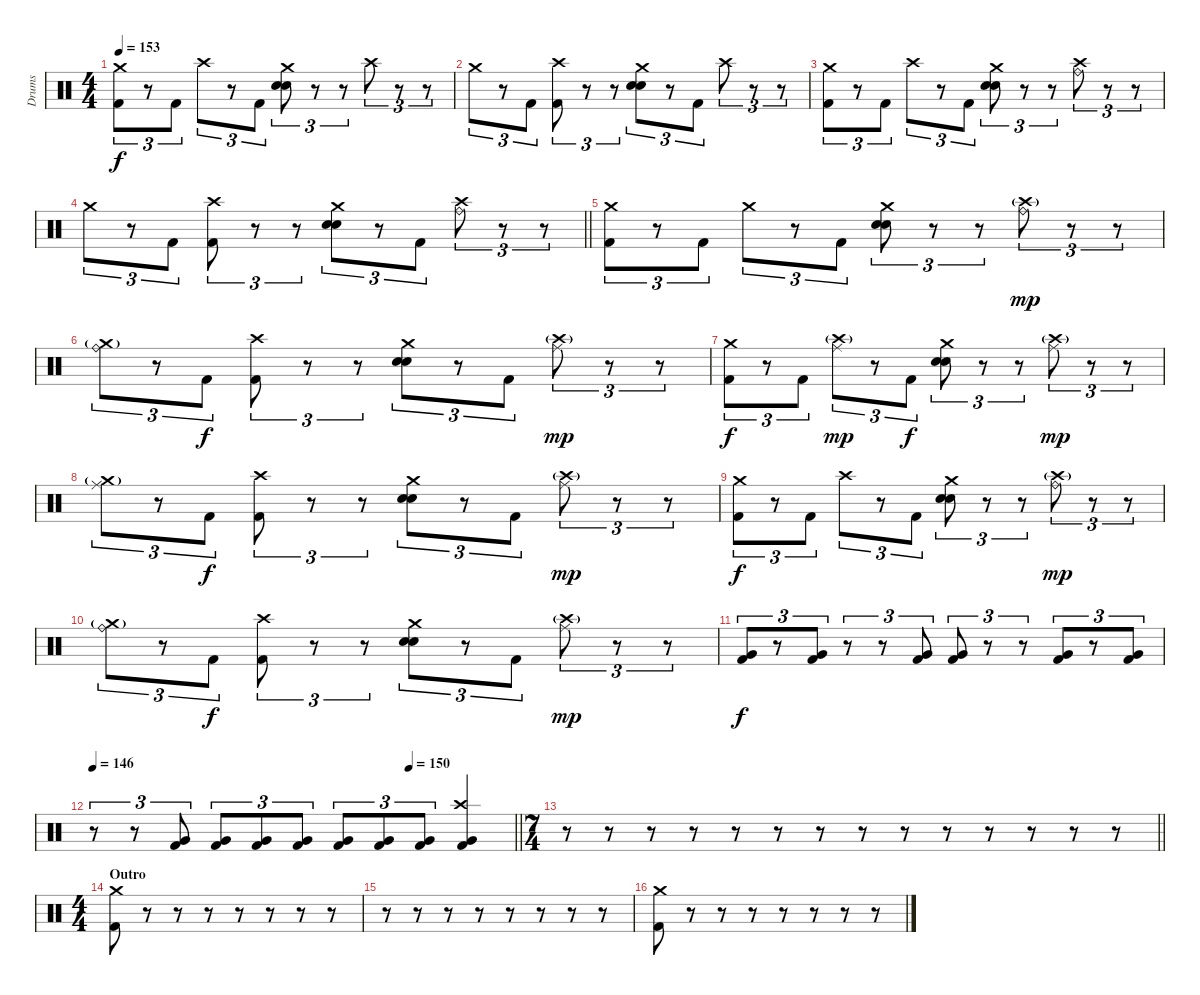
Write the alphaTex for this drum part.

\track ("Drums" "Drums") {instrument percussion}
\staff {score}
\articulation defaults
\ts (4 4)
\tempo 153
\clef neutral
\ks c
("Crash medium (hit)" "Kick (hit) 2").8{tu (3 2) dy f} r.8{tu (3 2)} "Kick (hit) 2".8{tu (3 2)} "Crash high (hit)".8{tu (3 2)} r.8{tu (3 2)} "Kick (hit) 2".8{tu (3 2)} ("Crash medium (hit)" "Snare (hit) 2" "Electric Snare (hit)").8{tu (3 2)} r.8{tu (3 2)} r.8{tu (3 2)} "Crash high (hit)".8{tu (3 2)} r.8{tu (3 2)} r.8{tu (3 2)} |
"Crash medium (hit)".8{tu (3 2)} r.8{tu (3 2)} "Kick (hit) 2".8{tu (3 2)} ("Crash high (hit)" "Kick (hit) 2").8{tu (3 2)} r.8{tu (3 2)} r.8{tu (3 2)} ("Crash medium (hit)" "Snare (hit) 2" "Electric Snare (hit)").8{tu (3 2)} r.8{tu (3 2)} "Kick (hit) 2".8{tu (3 2)} "Crash high (hit)".8{tu (3 2)} r.8{tu (3 2)} r.8{tu (3 2)} |
("Crash medium (hit)" "Kick (hit) 2").8{tu (3 2)} r.8{tu (3 2)} "Kick (hit) 2".8{tu (3 2)} "Crash high (hit)".8{tu (3 2)} r.8{tu (3 2)} "Kick (hit) 2".8{tu (3 2)} ("Crash medium (hit)" "Snare (hit) 2" "Electric Snare (hit)").8{tu (3 2)} r.8{tu (3 2)} r.8{tu (3 2)} ("Crash high (hit)" "Ride (bell)").8{tu (3 2)} r.8{tu (3 2)} r.8{tu (3 2)} |
\barLineRight lightlight "Crash medium (hit)".8{tu (3 2)}
r.8{tu (3 2)} "Kick (hit) 2".8{tu (3 2)} ("Crash high (hit)" "Kick (hit) 2").8{tu (3 2)} r.8{tu (3 2)} r.8{tu (3 2)} ("Crash medium (hit)" "Snare (hit) 2" "Electric Snare (hit)").8{tu (3 2)} r.8{tu (3 2)} "Kick (hit) 2".8{tu (3 2)} ("Crash high (hit)" "Ride (bell)").8{tu (3 2)} r.8{tu (3 2)} r.8{tu (3 2)} |
\section ("" "")
("Crash medium (hit)" "Kick (hit) 2").8{tu (3 2)} r.8{tu (3 2)} "Kick (hit) 2".8{tu (3 2)} "Crash medium (hit)".8{tu (3 2)} r.8{tu (3 2)} "Kick (hit) 2".8{tu (3 2)} ("Crash medium (hit)" "Snare (hit) 2" "Electric Snare (hit)").8{tu (3 2)} r.8{tu (3 2)} r.8{tu (3 2)} ("Crash high (hit)"{g} "Ride (bell)").8{tu (3 2) dy mp} r.8{tu (3 2)} r.8{tu (3 2)} |
("Crash medium (hit)"{g} "Ride (bell)").8{tu (3 2)} r.8{tu (3 2)} "Kick (hit) 2".8{tu (3 2) dy f} ("Crash high (hit)" "Kick (hit) 2").8{tu (3 2)} r.8{tu (3 2)} r.8{tu (3 2)} ("Crash medium (hit)" "Snare (hit) 2" "Electric Snare (hit)").8{tu (3 2)} r.8{tu (3 2)} "Kick (hit) 2".8{tu (3 2)} ("Crash high (hit)"{g} "Ride (middle)").8{tu (3 2) dy mp} r.8{tu (3 2)} r.8{tu (3 2)} |
("Crash medium (hit)" "Kick (hit) 2").8{tu (3 2) dy f} r.8{tu (3 2)} "Kick (hit) 2".8{tu (3 2)} ("Crash high (hit)"{g} "Ride (middle)").8{tu (3 2) dy mp} r.8{tu (3 2)} "Kick (hit) 2".8{tu (3 2) dy f} ("Crash medium (hit)" "Snare (hit) 2" "Electric Snare (hit)").8{tu (3 2)} r.8{tu (3 2)} r.8{tu (3 2)} ("Crash high (hit)"{g} "Ride (middle)").8{tu (3 2) dy mp} r.8{tu (3 2)} r.8{tu (3 2)} |
("Crash medium (hit)"{g} "Ride (middle)").8{tu (3 2)} r.8{tu (3 2)} "Kick (hit) 2".8{tu (3 2) dy f} ("Crash high (hit)" "Kick (hit) 2").8{tu (3 2)} r.8{tu (3 2)} r.8{tu (3 2)} ("Crash medium (hit)" "Snare (hit) 2" "Electric Snare (hit)").8{tu (3 2)} r.8{tu (3 2)} "Kick (hit) 2".8{tu (3 2)} ("Crash high (hit)"{g} "Ride (middle)").8{tu (3 2) dy mp} r.8{tu (3 2)} r.8{tu (3 2)} |
("Crash medium (hit)" "Kick (hit) 2").8{tu (3 2) dy f} r.8{tu (3 2)} "Kick (hit) 2".8{tu (3 2)} "Crash high (hit)".8{tu (3 2)} r.8{tu (3 2)} "Kick (hit) 2".8{tu (3 2)} ("Crash medium (hit)" "Snare (hit) 2" "Electric Snare (hit)").8{tu (3 2)} r.8{tu (3 2)} r.8{tu (3 2)} ("Crash high (hit)"{g} "Ride (bell)").8{tu (3 2) dy mp} r.8{tu (3 2)} r.8{tu (3 2)} |
("Crash medium (hit)"{g} "Ride (bell)").8{tu (3 2)} r.8{tu (3 2)} "Kick (hit) 2".8{tu (3 2) dy f} ("Crash high (hit)" "Kick (hit) 2").8{tu (3 2)} r.8{tu (3 2)} r.8{tu (3 2)} ("Crash medium (hit)" "Snare (hit) 2" "Electric Snare (hit)").8{tu (3 2)} r.8{tu (3 2)} "Kick (hit) 2".8{tu (3 2)} ("Crash high (hit)"{g} "Ride (middle)").8{tu (3 2) dy mp} r.8{tu (3 2)} r.8{tu (3 2)} |
("Very Low Tom (hit)" "Kick (hit) 2").8{tu (3 2) dy f} r.8{tu (3 2)} ("Very Low Tom (hit)" "Kick (hit) 2").8{tu (3 2)} r.8{tu (3 2)} r.8{tu (3 2)} ("Very Low Tom (hit)" "Kick (hit) 2").8{tu (3 2)} ("Very Low Tom (hit)" "Kick (hit) 2").8{tu (3 2)} r.8{tu (3 2)} r.8{tu (3 2)} ("Very Low Tom (hit)" "Kick (hit) 2").8{tu (3 2)} r.8{tu (3 2)} ("Very Low Tom (hit)" "Kick (hit) 2").8{tu (3 2)} |
\tempo 146
\tempo (150 0.75)
\barLineRight lightlight
r.8{tu (3 2)} r.8{tu (3 2)} ("Very Low Tom (hit)" "Kick (hit) 2").8{tu (3 2)} ("Very Low Tom (hit)" "Kick (hit) 2").8{tu (3 2)} ("Very Low Tom (hit)" "Kick (hit) 2").8{tu (3 2)} ("Very Low Tom (hit)" "Kick (hit) 2").8{tu (3 2)} ("Very Low Tom (hit)" "Kick (hit) 2").8{tu (3 2)} ("Very Low Tom (hit)" "Kick (hit) 2").8{tu (3 2)} ("Very Low Tom (hit)" "Kick (hit) 2").8{tu (3 2)} ("Crash high (hit)" "Very Low Tom (hit)" "Kick (hit) 2").4 |
\ts (7 4)
\barLineRight lightlight
r.8 r.8 r.8 r.8 r.8 r.8 r.8 r.8 r.8 r.8 r.8 r.8 r.8 r.8 |
\ts (4 4)
\section ("" "Outro")
("Crash medium (hit)" "Kick (hit) 2").8 r.8 r.8 r.8 r.8 r.8 r.8 r.8 |
r.8 r.8 r.8 r.8 r.8 r.8 r.8 r.8 |
("Crash medium (hit)" "Kick (hit) 2").8 r.8 r.8 r.8 r.8 r.8 r.8 r.8
